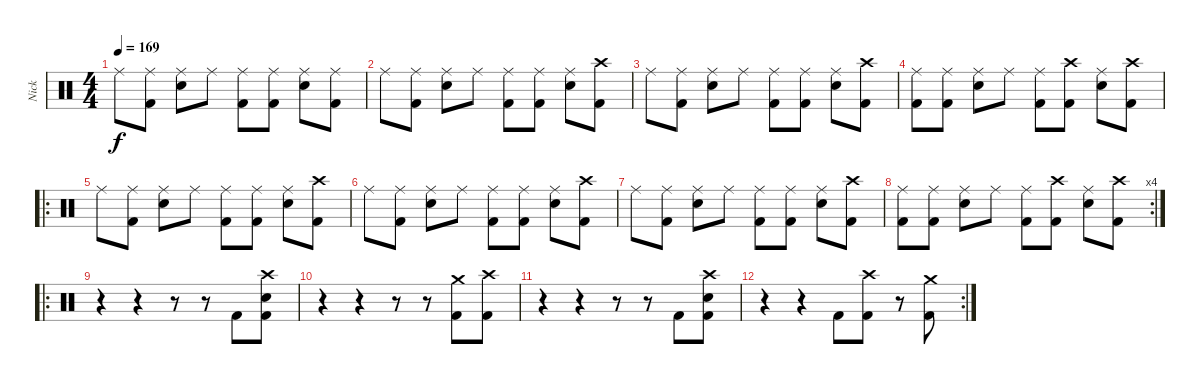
\track ("Nick" "Nick") {instrument percussion}
\staff {score}
\articulation defaults
\ts (4 4)
\tempo 169
\clef neutral
\ks c "Ride (middle)".8{dy f}
("Ride (middle)" "Kick (hit) 2").8 ("Ride (middle)" "Snare (hit) 2").8 "Ride (middle)".8 ("Ride (middle)" "Kick (hit) 2").8 ("Ride (middle)" "Kick (hit) 2").8 ("Ride (middle)" "Snare (hit) 2").8 ("Ride (middle)" "Kick (hit) 2").8 |
"Ride (middle)".8 ("Ride (middle)" "Kick (hit) 2").8 ("Ride (middle)" "Snare (hit) 2").8 "Ride (middle)".8 ("Ride (middle)" "Kick (hit) 2").8 ("Ride (middle)" "Kick (hit) 2").8 ("Ride (middle)" "Snare (hit) 2").8 ("Crash high (hit)" "Kick (hit) 2").8 |
"Ride (middle)".8 ("Ride (middle)" "Kick (hit) 2").8 ("Ride (middle)" "Snare (hit) 2").8 "Ride (middle)".8 ("Ride (middle)" "Kick (hit) 2").8 ("Ride (middle)" "Kick (hit) 2").8 ("Ride (middle)" "Snare (hit) 2").8 ("Crash high (hit)" "Kick (hit) 2").8 |
("Ride (middle)" "Kick (hit) 2").8 ("Ride (middle)" "Kick (hit) 2").8 ("Ride (middle)" "Snare (hit) 2").8 "Ride (middle)".8 ("Ride (middle)" "Kick (hit) 2").8 ("Crash high (hit)" "Kick (hit) 2").8 ("Ride (middle)" "Snare (hit) 2").8 ("Crash high (hit)" "Kick (hit) 2").8 |
\ro "Ride (middle)".8
("Ride (middle)" "Kick (hit) 2").8 ("Ride (middle)" "Snare (hit) 2").8 "Ride (middle)".8 ("Ride (middle)" "Kick (hit) 2").8 ("Ride (middle)" "Kick (hit) 2").8 ("Ride (middle)" "Snare (hit) 2").8 ("Crash high (hit)" "Kick (hit) 2").8 |
"Ride (middle)".8 ("Ride (middle)" "Kick (hit) 2").8 ("Ride (middle)" "Snare (hit) 2").8 "Ride (middle)".8 ("Ride (middle)" "Kick (hit) 2").8 ("Ride (middle)" "Kick (hit) 2").8 ("Ride (middle)" "Snare (hit) 2").8 ("Crash high (hit)" "Kick (hit) 2").8 |
"Ride (middle)".8 ("Ride (middle)" "Kick (hit) 2").8 ("Ride (middle)" "Snare (hit) 2").8 "Ride (middle)".8 ("Ride (middle)" "Kick (hit) 2").8 ("Ride (middle)" "Kick (hit) 2").8 ("Ride (middle)" "Snare (hit) 2").8 ("Crash high (hit)" "Kick (hit) 2").8 |
\rc 4
("Ride (middle)" "Kick (hit) 2").8 ("Ride (middle)" "Kick (hit) 2").8 ("Ride (middle)" "Snare (hit) 2").8 "Ride (middle)".8 ("Ride (middle)" "Kick (hit) 2").8 ("Crash high (hit)" "Kick (hit) 2").8 ("Ride (middle)" "Snare (hit) 2").8 ("Crash high (hit)" "Kick (hit) 2").8 |
\ro
r.4 r.4 r.8 r.8 "Kick (hit) 2".8 ("Crash high (hit)" "Snare (hit) 2" "Kick (hit) 2").8 |
r.4 r.4 r.8 r.8 ("Crash medium (hit)" "Kick (hit) 2").8 ("Crash high (hit)" "Kick (hit) 2").8 |
r.4 r.4 r.8 r.8 "Kick (hit) 2".8 ("Crash high (hit)" "Snare (hit) 2" "Kick (hit) 2").8 |
\rc 2
r.4 r.4 "Kick (hit) 2".8 ("Crash high (hit)" "Kick (hit) 2").8 r.8 ("Crash medium (hit)" "Kick (hit) 2").8
